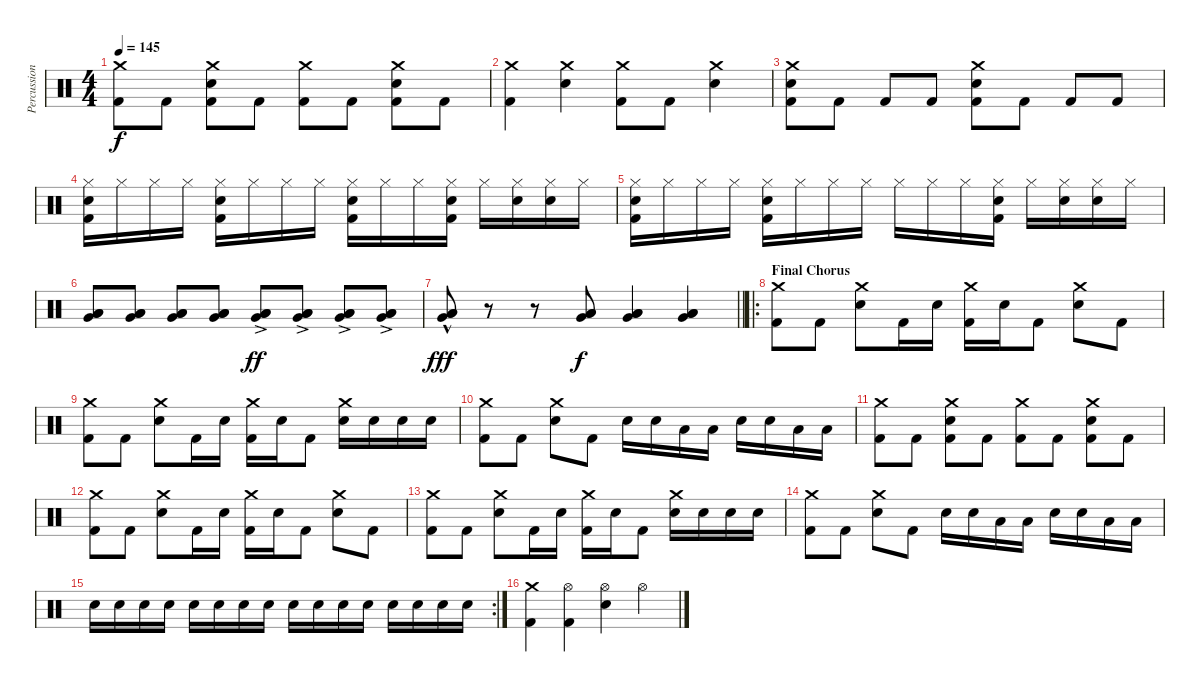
\track ("Percussion" "Percussion") {instrument percussion}
\staff {score}
\articulation defaults
\ts (4 4)
\tempo 145
\clef neutral
\ks c
("Crash medium (hit)" "Kick (hit) 2").8{dy f} "Kick (hit) 2".8 ("Crash medium (hit)" "Snare (hit) 2" "Kick (hit) 2").8 "Kick (hit) 2".8 ("Crash medium (hit)" "Kick (hit) 2").8 "Kick (hit) 2".8 ("Crash medium (hit)" "Snare (hit) 2" "Kick (hit) 2").8 "Kick (hit) 2".8 |
("Crash medium (hit)" "Kick (hit) 2").4 ("Crash medium (hit)" "Snare (hit) 2").4 ("Crash medium (hit)" "Kick (hit) 2").8 "Kick (hit) 2".8 ("Crash medium (hit)" "Snare (hit) 2").4 |
("Crash medium (hit)" "Snare (hit) 2" "Kick (hit) 2").8 "Kick (hit) 2".8 "Kick (hit) 2".8 "Kick (hit) 2".8 ("Crash medium (hit)" "Snare (hit) 2" "Kick (hit) 2").8 "Kick (hit) 2".8 "Kick (hit) 2".8 "Kick (hit) 2".8 |
("Hi-Hat (closed)" "Snare (hit) 2" "Kick (hit) 2").16 "Hi-Hat (closed)".16 "Hi-Hat (closed)".16 "Hi-Hat (closed)".16 ("Hi-Hat (closed)" "Snare (hit) 2" "Kick (hit) 2").16 "Hi-Hat (closed)".16 "Hi-Hat (closed)".16 "Hi-Hat (closed)".16 ("Hi-Hat (closed)" "Snare (hit) 2" "Kick (hit) 2").16 "Hi-Hat (closed)".16 "Hi-Hat (closed)".16 ("Hi-Hat (closed)" "Snare (hit) 2" "Kick (hit) 2").16 "Hi-Hat (closed)".16 ("Hi-Hat (closed)" "Snare (hit) 2").16 ("Hi-Hat (closed)" "Snare (hit) 2").16 "Hi-Hat (closed)".16 |
("Hi-Hat (closed)" "Snare (hit) 2" "Kick (hit) 2").16 "Hi-Hat (closed)".16 "Hi-Hat (closed)".16 "Hi-Hat (closed)".16 ("Hi-Hat (closed)" "Snare (hit) 2" "Kick (hit) 2").16 "Hi-Hat (closed)".16 "Hi-Hat (closed)".16 "Hi-Hat (closed)".16 "Hi-Hat (closed)".16 "Hi-Hat (closed)".16 "Hi-Hat (closed)".16 ("Hi-Hat (closed)" "Snare (hit) 2" "Kick (hit) 2").16 "Hi-Hat (closed)".16 ("Hi-Hat (closed)" "Snare (hit) 2").16 ("Hi-Hat (closed)" "Snare (hit) 2").16 "Hi-Hat (closed)".16 |
("Low Tom (hit)" "Low Floor Tom (hit)" "Very Low Tom (hit)").8 ("Low Tom (hit)" "Low Floor Tom (hit)" "Very Low Tom (hit)").8 ("Low Tom (hit)" "Low Floor Tom (hit)" "Very Low Tom (hit)").8 ("Low Tom (hit)" "Low Floor Tom (hit)" "Very Low Tom (hit)").8 ("Low Tom (hit)"{ac} "Low Floor Tom (hit)"{ac} "Very Low Tom (hit)"{ac}).8{dy ff} ("Low Tom (hit)"{ac} "Low Floor Tom (hit)"{ac} "Very Low Tom (hit)"{ac}).8 ("Low Tom (hit)"{ac} "Low Floor Tom (hit)"{ac} "Very Low Tom (hit)"{ac}).8 ("Low Tom (hit)"{ac} "Low Floor Tom (hit)"{ac} "Very Low Tom (hit)"{ac}).8 |
\barLineRight lightlight
("Low Tom (hit)"{hac} "Low Floor Tom (hit)"{hac} "Very Low Tom (hit)"{hac}).8{dy fff} r.8 r.8 ("Low Tom (hit)" "Low Floor Tom (hit)" "Very Low Tom (hit)").8{dy f} ("Low Tom (hit)" "Low Floor Tom (hit)" "Very Low Tom (hit)").4 ("Low Tom (hit)" "Low Floor Tom (hit)" "Very Low Tom (hit)").4 |
\ro
\section ("" "Final Chorus")
("Crash medium (hit)" "Kick (hit) 2").8 "Kick (hit) 2".8 ("Crash medium (hit)" "Snare (hit) 2").8 "Kick (hit) 2".16 "Snare (hit) 2".16 ("Crash medium (hit)" "Kick (hit) 2").16 "Snare (hit) 2".16 "Kick (hit) 2".8 ("Crash medium (hit)" "Snare (hit) 2").8 "Kick (hit) 2".8 |
("Crash medium (hit)" "Kick (hit) 2").8 "Kick (hit) 2".8 ("Crash medium (hit)" "Snare (hit) 2").8 "Kick (hit) 2".16 "Snare (hit) 2".16 ("Crash medium (hit)" "Kick (hit) 2").16 "Snare (hit) 2".16 "Kick (hit) 2".8 ("Crash medium (hit)" "Snare (hit) 2").16 "Snare (hit) 2".16 "Snare (hit) 2".16 "Snare (hit) 2".16 |
("Crash medium (hit)" "Kick (hit) 2").8 "Kick (hit) 2".8 ("Crash medium (hit)" "Snare (hit) 2").8 "Kick (hit) 2".8 "Snare (hit) 2".16 "Snare (hit) 2".16 "Low Tom (hit)".16 "Low Tom (hit)".16 "Snare (hit) 2".16 "Snare (hit) 2".16 "Low Floor Tom (hit)".16 "Low Floor Tom (hit)".16 |
("Crash medium (hit)" "Kick (hit) 2").8 "Kick (hit) 2".8 ("Crash medium (hit)" "Snare (hit) 2" "Kick (hit) 2").8 "Kick (hit) 2".8 ("Crash medium (hit)" "Kick (hit) 2").8 "Kick (hit) 2".8 ("Crash medium (hit)" "Snare (hit) 2" "Kick (hit) 2").8 "Kick (hit) 2".8 |
("Crash medium (hit)" "Kick (hit) 2").8 "Kick (hit) 2".8 ("Crash medium (hit)" "Snare (hit) 2").8 "Kick (hit) 2".16 "Snare (hit) 2".16 ("Crash medium (hit)" "Kick (hit) 2").16 "Snare (hit) 2".16 "Kick (hit) 2".8 ("Crash medium (hit)" "Snare (hit) 2").8 "Kick (hit) 2".8 |
("Crash medium (hit)" "Kick (hit) 2").8 "Kick (hit) 2".8 ("Crash medium (hit)" "Snare (hit) 2").8 "Kick (hit) 2".16 "Snare (hit) 2".16 ("Crash medium (hit)" "Kick (hit) 2").16 "Snare (hit) 2".16 "Kick (hit) 2".8 ("Crash medium (hit)" "Snare (hit) 2").16 "Snare (hit) 2".16 "Snare (hit) 2".16 "Snare (hit) 2".16 |
("Crash medium (hit)" "Kick (hit) 2").8 "Kick (hit) 2".8 ("Crash medium (hit)" "Snare (hit) 2").8 "Kick (hit) 2".8 "Snare (hit) 2".16 "Snare (hit) 2".16 "Low Tom (hit)".16 "Low Tom (hit)".16 "Snare (hit) 2".16 "Snare (hit) 2".16 "Low Floor Tom (hit)".16 "Low Floor Tom (hit)".16 |
\rc 2 "Snare (hit) 2".16 "Snare (hit) 2".16 "Snare (hit) 2".16 "Snare (hit) 2".16 "Snare (hit) 2".16 "Snare (hit) 2".16 "Snare (hit) 2".16 "Snare (hit) 2".16 "Snare (hit) 2".16 "Snare (hit) 2".16 "Snare (hit) 2".16 "Snare (hit) 2".16 "Snare (hit) 2".16 "Snare (hit) 2".16 "Snare (hit) 2".16 "Snare (hit) 2".16
|
("Crash medium (hit)" "Kick (hit) 2").4 ("Hi-Hat (open)" "Kick (hit) 2").4 ("Hi-Hat (open)" "Snare (hit) 2").4 "Hi-Hat (open)".4
